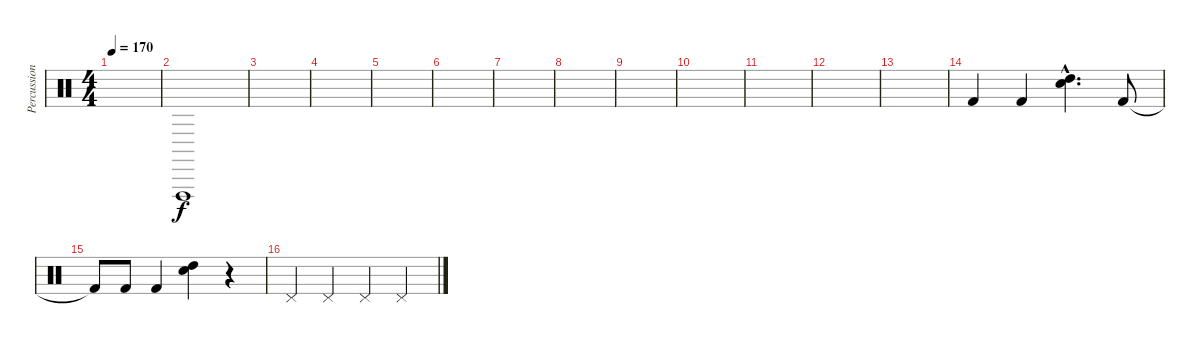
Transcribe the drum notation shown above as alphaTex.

\track ("Percussioni" "Percussion") {instrument percussion}
\staff {score}
\articulation defaults
\ts (4 4)
\tempo 170
\clef neutral
\ks c
|
"Vibraslap (hit)".1 |
|
|
|
|
|
|
|
|
|
|
|
"Kick (hit) 2".4 "Kick (hit) 2".4 ("Electric Snare (hit)"{hac} "High Tom (hit)"{hac}).4{d} "Kick (hit) 2".8 |
"Kick (hit) 2"{t}.8 "Kick (hit) 2".8 "Kick (hit) 2".4 ("Electric Snare (hit)" "High Tom (hit)").4 r.4 |
"Pedal Hi-Hat (hit)".4 "Pedal Hi-Hat (hit)".4 "Pedal Hi-Hat (hit)".4 "Pedal Hi-Hat (hit)".4
